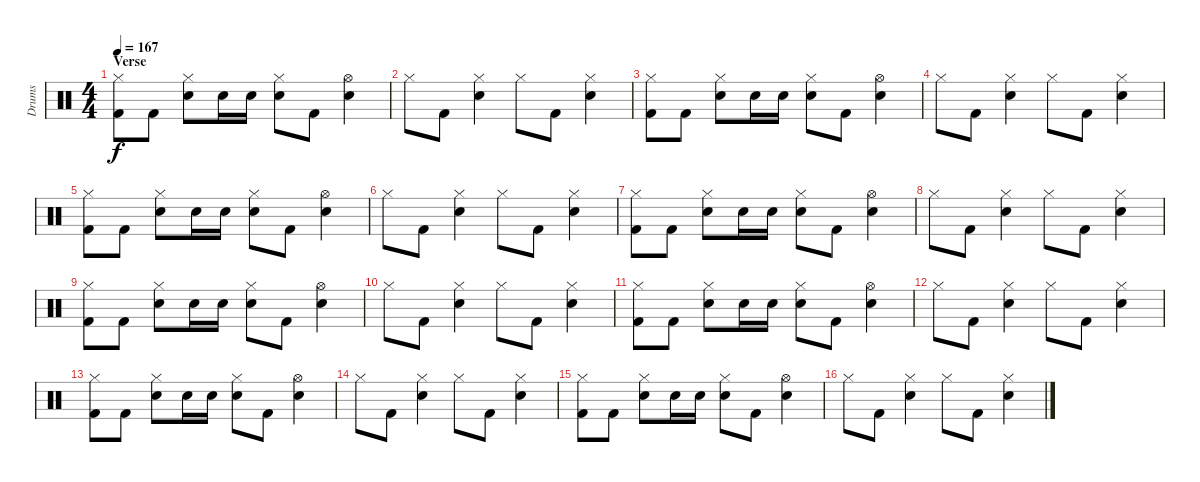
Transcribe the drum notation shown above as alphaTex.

\track ("Drums" "Drums") {instrument percussion}
\staff {score}
\articulation defaults
\ts (4 4)
\section ("" "Verse")
\tempo 167
\clef neutral
\ks c
("Hi-Hat (closed)" "Kick (hit) 2").8{dy f} "Kick (hit) 2".8 ("Hi-Hat (closed)" "Electric Snare (hit)").8 "Electric Snare (hit)".16 "Electric Snare (hit)".16 ("Hi-Hat (closed)" "Electric Snare (hit)").8 "Kick (hit) 2".8 ("Hi-Hat (open)" "Electric Snare (hit)").4 |
"Hi-Hat (closed)".8 "Kick (hit) 2".8 ("Hi-Hat (closed)" "Electric Snare (hit)").4 "Hi-Hat (closed)".8 "Kick (hit) 2".8 ("Hi-Hat (closed)" "Electric Snare (hit)").4 |
("Hi-Hat (closed)" "Kick (hit) 2").8 "Kick (hit) 2".8 ("Hi-Hat (closed)" "Electric Snare (hit)").8 "Electric Snare (hit)".16 "Electric Snare (hit)".16 ("Hi-Hat (closed)" "Electric Snare (hit)").8 "Kick (hit) 2".8 ("Hi-Hat (open)" "Electric Snare (hit)").4 |
"Hi-Hat (closed)".8 "Kick (hit) 2".8 ("Hi-Hat (closed)" "Electric Snare (hit)").4 "Hi-Hat (closed)".8 "Kick (hit) 2".8 ("Hi-Hat (closed)" "Electric Snare (hit)").4 |
("Hi-Hat (closed)" "Kick (hit) 2").8 "Kick (hit) 2".8 ("Hi-Hat (closed)" "Electric Snare (hit)").8 "Electric Snare (hit)".16 "Electric Snare (hit)".16 ("Hi-Hat (closed)" "Electric Snare (hit)").8 "Kick (hit) 2".8 ("Hi-Hat (open)" "Electric Snare (hit)").4 |
"Hi-Hat (closed)".8 "Kick (hit) 2".8 ("Hi-Hat (closed)" "Electric Snare (hit)").4 "Hi-Hat (closed)".8 "Kick (hit) 2".8 ("Hi-Hat (closed)" "Electric Snare (hit)").4 |
("Hi-Hat (closed)" "Kick (hit) 2").8 "Kick (hit) 2".8 ("Hi-Hat (closed)" "Electric Snare (hit)").8 "Electric Snare (hit)".16 "Electric Snare (hit)".16 ("Hi-Hat (closed)" "Electric Snare (hit)").8 "Kick (hit) 2".8 ("Hi-Hat (open)" "Electric Snare (hit)").4 |
"Hi-Hat (closed)".8 "Kick (hit) 2".8 ("Hi-Hat (closed)" "Electric Snare (hit)").4 "Hi-Hat (closed)".8 "Kick (hit) 2".8 ("Hi-Hat (closed)" "Electric Snare (hit)").4 |
("Hi-Hat (closed)" "Kick (hit) 2").8 "Kick (hit) 2".8 ("Hi-Hat (closed)" "Electric Snare (hit)").8 "Electric Snare (hit)".16 "Electric Snare (hit)".16 ("Hi-Hat (closed)" "Electric Snare (hit)").8 "Kick (hit) 2".8 ("Hi-Hat (open)" "Electric Snare (hit)").4 |
"Hi-Hat (closed)".8 "Kick (hit) 2".8 ("Hi-Hat (closed)" "Electric Snare (hit)").4 "Hi-Hat (closed)".8 "Kick (hit) 2".8 ("Hi-Hat (closed)" "Electric Snare (hit)").4 |
("Hi-Hat (closed)" "Kick (hit) 2").8 "Kick (hit) 2".8 ("Hi-Hat (closed)" "Electric Snare (hit)").8 "Electric Snare (hit)".16 "Electric Snare (hit)".16 ("Hi-Hat (closed)" "Electric Snare (hit)").8 "Kick (hit) 2".8 ("Hi-Hat (open)" "Electric Snare (hit)").4 |
"Hi-Hat (closed)".8 "Kick (hit) 2".8 ("Hi-Hat (closed)" "Electric Snare (hit)").4 "Hi-Hat (closed)".8 "Kick (hit) 2".8 ("Hi-Hat (closed)" "Electric Snare (hit)").4 |
("Hi-Hat (closed)" "Kick (hit) 2").8 "Kick (hit) 2".8 ("Hi-Hat (closed)" "Electric Snare (hit)").8 "Electric Snare (hit)".16 "Electric Snare (hit)".16 ("Hi-Hat (closed)" "Electric Snare (hit)").8 "Kick (hit) 2".8 ("Hi-Hat (open)" "Electric Snare (hit)").4 |
"Hi-Hat (closed)".8 "Kick (hit) 2".8 ("Hi-Hat (closed)" "Electric Snare (hit)").4 "Hi-Hat (closed)".8 "Kick (hit) 2".8 ("Hi-Hat (closed)" "Electric Snare (hit)").4 |
("Hi-Hat (closed)" "Kick (hit) 2").8 "Kick (hit) 2".8 ("Hi-Hat (closed)" "Electric Snare (hit)").8 "Electric Snare (hit)".16 "Electric Snare (hit)".16 ("Hi-Hat (closed)" "Electric Snare (hit)").8 "Kick (hit) 2".8 ("Hi-Hat (open)" "Electric Snare (hit)").4 |
"Hi-Hat (closed)".8 "Kick (hit) 2".8 ("Hi-Hat (closed)" "Electric Snare (hit)").4 "Hi-Hat (closed)".8 "Kick (hit) 2".8 ("Hi-Hat (closed)" "Electric Snare (hit)").4
